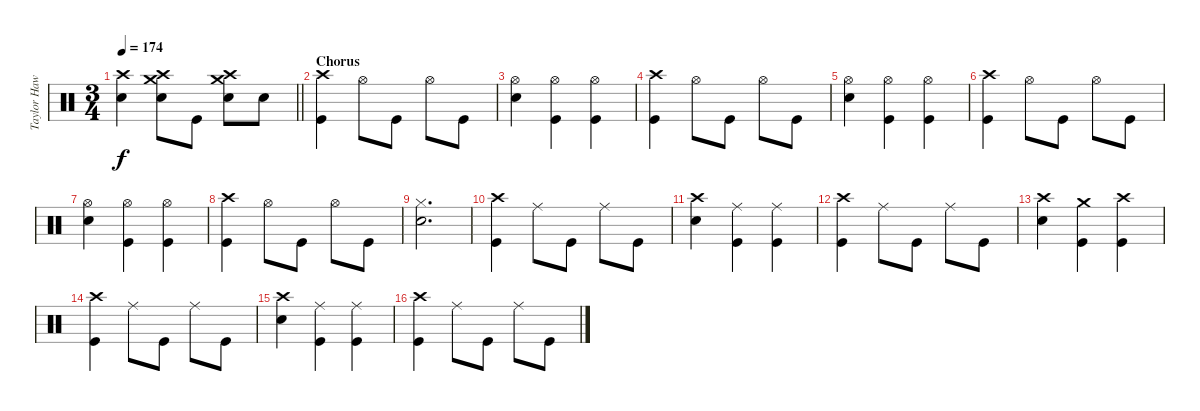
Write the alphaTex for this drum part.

\track ("Taylor Hawkins - Drums" "Taylor Haw") {instrument percussion}
\staff {score}
\articulation defaults
\ts (3 4)
\tempo 174
\clef neutral
\barLineRight lightlight
\ks c
("Crash high (hit)" "Snare (hit) 2").4{dy f} ("Crash high (hit)" "Crash medium (hit)" "Snare (hit) 2").8 "Kick (hit)".8 ("Crash high (hit)" "Crash medium (hit)" "Snare (hit) 2").8 "Snare (hit) 2".8 |
\section ("" "Chorus")
("Crash high (hit)" "Kick (hit)").4 "Hi-Hat (open)".8 "Kick (hit)".8 "Hi-Hat (open)".8 "Kick (hit)".8 |
("Hi-Hat (open)" "Snare (hit) 2").4 ("Hi-Hat (open)" "Kick (hit)").4 ("Hi-Hat (open)" "Kick (hit)").4 |
("Crash high (hit)" "Kick (hit)").4 "Hi-Hat (open)".8 "Kick (hit)".8 "Hi-Hat (open)".8 "Kick (hit)".8 |
("Hi-Hat (open)" "Snare (hit) 2").4 ("Hi-Hat (open)" "Kick (hit)").4 ("Hi-Hat (open)" "Kick (hit)").4 |
("Crash high (hit)" "Kick (hit)").4 "Hi-Hat (open)".8 "Kick (hit)".8 "Hi-Hat (open)".8 "Kick (hit)".8 |
("Hi-Hat (open)" "Snare (hit) 2").4 ("Hi-Hat (open)" "Kick (hit)").4 ("Hi-Hat (open)" "Kick (hit)").4 |
("Crash high (hit)" "Kick (hit)").4 "Hi-Hat (open)".8 "Kick (hit)".8 "Hi-Hat (open)".8 "Kick (hit)".8 |
("Hi-Hat (closed)" "Snare (hit) 2").2{d} |
("Crash high (hit)" "Kick (hit)").4 "Ride (middle)".8 "Kick (hit)".8 "Ride (middle)".8 "Kick (hit)".8 |
("Crash high (hit)" "Snare (hit) 2").4 ("Ride (middle)" "Kick (hit)").4 ("Ride (middle)" "Kick (hit)").4 |
("Crash high (hit)" "Kick (hit)").4 "Ride (middle)".8 "Kick (hit)".8 "Ride (middle)".8 "Kick (hit)".8 |
("Crash high (hit)" "Snare (hit) 2").4 ("Crash medium (hit)" "Kick (hit)").4 ("Crash high (hit)" "Kick (hit)").4 |
("Crash high (hit)" "Kick (hit)").4 "Ride (middle)".8 "Kick (hit)".8 "Ride (middle)".8 "Kick (hit)".8 |
("Crash high (hit)" "Snare (hit) 2").4 ("Ride (middle)" "Kick (hit)").4 ("Ride (middle)" "Kick (hit)").4 |
("Crash high (hit)" "Kick (hit)").4 "Ride (middle)".8 "Kick (hit)".8 "Ride (middle)".8 "Kick (hit)".8
